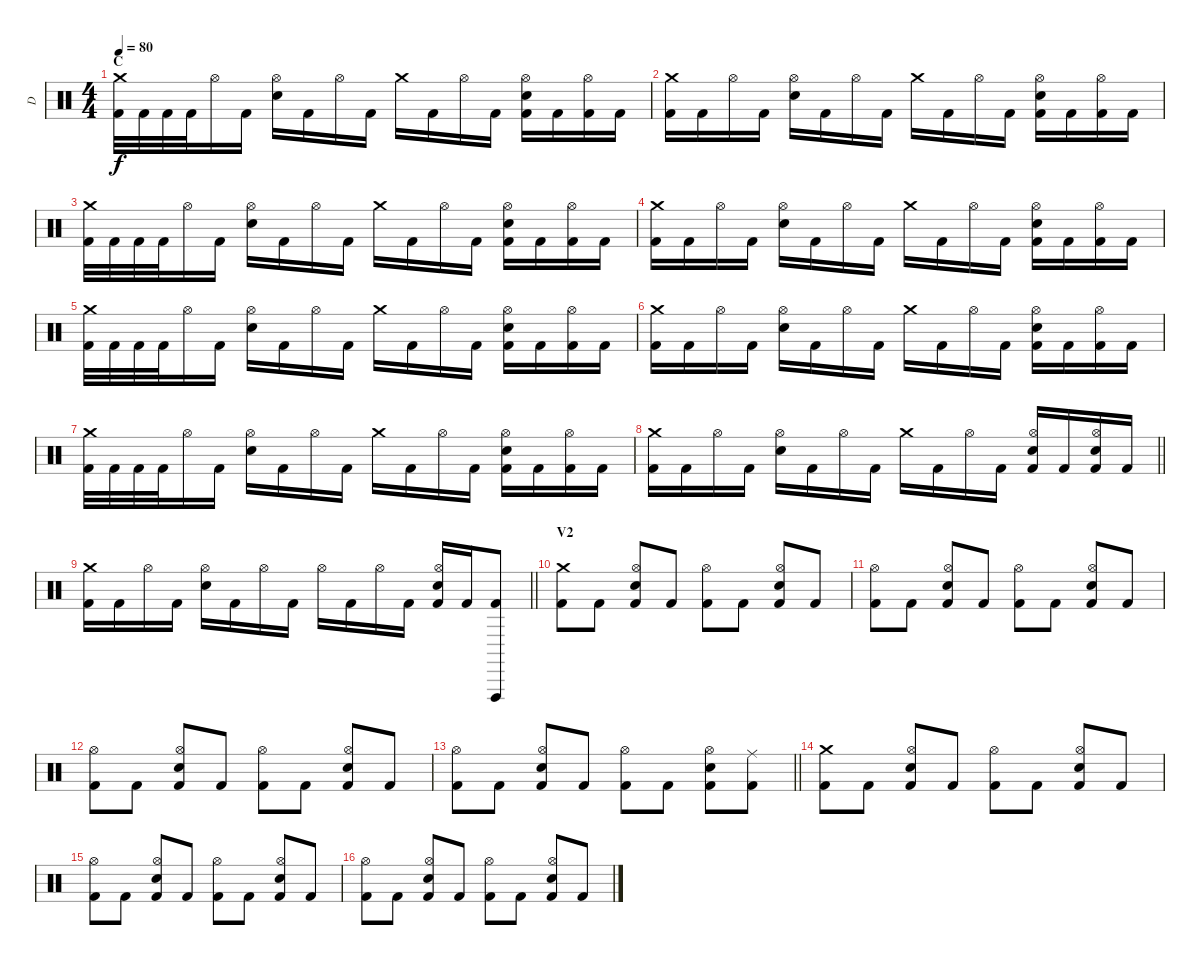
\track ("D" "D") {instrument percussion}
\staff {score}
\articulation defaults
\ts (4 4)
\section ("" "C")
\tempo 80
\clef neutral
\ks c
("Crash medium (hit)" "Kick (hit) 2").32{dy f} "Kick (hit) 2".32 "Kick (hit) 2".32 "Kick (hit) 2".32 "Hi-Hat (open)".16 "Kick (hit) 2".16 ("Hi-Hat (open)" "Electric Snare (hit)").16 "Kick (hit) 2".16 "Hi-Hat (open)".16 "Kick (hit) 2".16 "Crash medium (hit)".16 "Kick (hit) 2".16 "Hi-Hat (open)".16 "Kick (hit) 2".16 ("Hi-Hat (open)" "Electric Snare (hit)" "Kick (hit) 2").16 "Kick (hit) 2".16 ("Hi-Hat (open)" "Kick (hit) 2").16 "Kick (hit) 2".16 |
("Crash medium (hit)" "Kick (hit) 2").16 "Kick (hit) 2".16 "Hi-Hat (open)".16 "Kick (hit) 2".16 ("Hi-Hat (open)" "Electric Snare (hit)").16 "Kick (hit) 2".16 "Hi-Hat (open)".16 "Kick (hit) 2".16 "Crash medium (hit)".16 "Kick (hit) 2".16 "Hi-Hat (open)".16 "Kick (hit) 2".16 ("Hi-Hat (open)" "Electric Snare (hit)" "Kick (hit) 2").16 "Kick (hit) 2".16 ("Hi-Hat (open)" "Kick (hit) 2").16 "Kick (hit) 2".16 |
("Crash medium (hit)" "Kick (hit) 2").32 "Kick (hit) 2".32 "Kick (hit) 2".32 "Kick (hit) 2".32 "Hi-Hat (open)".16 "Kick (hit) 2".16 ("Hi-Hat (open)" "Electric Snare (hit)").16 "Kick (hit) 2".16 "Hi-Hat (open)".16 "Kick (hit) 2".16 "Crash medium (hit)".16 "Kick (hit) 2".16 "Hi-Hat (open)".16 "Kick (hit) 2".16 ("Hi-Hat (open)" "Electric Snare (hit)" "Kick (hit) 2").16 "Kick (hit) 2".16 ("Hi-Hat (open)" "Kick (hit) 2").16 "Kick (hit) 2".16 |
("Crash medium (hit)" "Kick (hit) 2").16 "Kick (hit) 2".16 "Hi-Hat (open)".16 "Kick (hit) 2".16 ("Hi-Hat (open)" "Electric Snare (hit)").16 "Kick (hit) 2".16 "Hi-Hat (open)".16 "Kick (hit) 2".16 "Crash medium (hit)".16 "Kick (hit) 2".16 "Hi-Hat (open)".16 "Kick (hit) 2".16 ("Hi-Hat (open)" "Electric Snare (hit)" "Kick (hit) 2").16 "Kick (hit) 2".16 ("Hi-Hat (open)" "Kick (hit) 2").16 "Kick (hit) 2".16 |
("Crash medium (hit)" "Kick (hit) 2").32 "Kick (hit) 2".32 "Kick (hit) 2".32 "Kick (hit) 2".32 "Hi-Hat (open)".16 "Kick (hit) 2".16 ("Hi-Hat (open)" "Electric Snare (hit)").16 "Kick (hit) 2".16 "Hi-Hat (open)".16 "Kick (hit) 2".16 "Crash medium (hit)".16 "Kick (hit) 2".16 "Hi-Hat (open)".16 "Kick (hit) 2".16 ("Hi-Hat (open)" "Electric Snare (hit)" "Kick (hit) 2").16 "Kick (hit) 2".16 ("Hi-Hat (open)" "Kick (hit) 2").16 "Kick (hit) 2".16 |
("Crash medium (hit)" "Kick (hit) 2").16 "Kick (hit) 2".16 "Hi-Hat (open)".16 "Kick (hit) 2".16 ("Hi-Hat (open)" "Electric Snare (hit)").16 "Kick (hit) 2".16 "Hi-Hat (open)".16 "Kick (hit) 2".16 "Crash medium (hit)".16 "Kick (hit) 2".16 "Hi-Hat (open)".16 "Kick (hit) 2".16 ("Hi-Hat (open)" "Electric Snare (hit)" "Kick (hit) 2").16 "Kick (hit) 2".16 ("Hi-Hat (open)" "Kick (hit) 2").16 "Kick (hit) 2".16 |
("Crash medium (hit)" "Kick (hit) 2").32 "Kick (hit) 2".32 "Kick (hit) 2".32 "Kick (hit) 2".32 "Hi-Hat (open)".16 "Kick (hit) 2".16 ("Hi-Hat (open)" "Electric Snare (hit)").16 "Kick (hit) 2".16 "Hi-Hat (open)".16 "Kick (hit) 2".16 "Crash medium (hit)".16 "Kick (hit) 2".16 "Hi-Hat (open)".16 "Kick (hit) 2".16 ("Hi-Hat (open)" "Electric Snare (hit)" "Kick (hit) 2").16 "Kick (hit) 2".16 ("Hi-Hat (open)" "Kick (hit) 2").16 "Kick (hit) 2".16 |
\barLineRight lightlight
("Crash medium (hit)" "Kick (hit) 2").16 "Kick (hit) 2".16 "Hi-Hat (open)".16 "Kick (hit) 2".16 ("Hi-Hat (open)" "Electric Snare (hit)").16 "Kick (hit) 2".16 "Hi-Hat (open)".16 "Kick (hit) 2".16 "Crash medium (hit)".16 "Kick (hit) 2".16 "Hi-Hat (open)".16 "Kick (hit) 2".16 ("Hi-Hat (open)" "Electric Snare (hit)" "Kick (hit) 2").16 "Kick (hit) 2".16 ("Hi-Hat (open)" "Electric Snare (hit)" "Kick (hit) 2").16 "Kick (hit) 2".16 |
\section ("" "")
\barLineRight lightlight
("Crash medium (hit)" "Kick (hit) 2").16 "Kick (hit) 2".16 "Hi-Hat (open)".16 "Kick (hit) 2".16 ("Hi-Hat (open)" "Electric Snare (hit)").16 "Kick (hit) 2".16 "Hi-Hat (open)".16 "Kick (hit) 2".16 "Hi-Hat (open)".16 "Kick (hit) 2".16 "Hi-Hat (open)".16 "Kick (hit) 2".16 ("Hi-Hat (open)" "Electric Snare (hit)" "Kick (hit) 2").16 "Kick (hit) 2".16 ("Vibraslap (hit)" "Kick (hit) 2").8 |
\section ("" "V2")
("Crash medium (hit)" "Kick (hit) 2").8 "Kick (hit) 2".8 ("Hi-Hat (open)" "Electric Snare (hit)" "Kick (hit) 2").8 "Kick (hit) 2".8 ("Hi-Hat (open)" "Kick (hit) 2").8 "Kick (hit) 2".8 ("Hi-Hat (open)" "Electric Snare (hit)" "Kick (hit) 2").8 "Kick (hit) 2".8 |
("Hi-Hat (open)" "Kick (hit) 2").8 "Kick (hit) 2".8 ("Hi-Hat (open)" "Electric Snare (hit)" "Kick (hit) 2").8 "Kick (hit) 2".8 ("Hi-Hat (open)" "Kick (hit) 2").8 "Kick (hit) 2".8 ("Hi-Hat (open)" "Electric Snare (hit)" "Kick (hit) 2").8 "Kick (hit) 2".8 |
("Hi-Hat (open)" "Kick (hit) 2").8 "Kick (hit) 2".8 ("Hi-Hat (open)" "Electric Snare (hit)" "Kick (hit) 2").8 "Kick (hit) 2".8 ("Hi-Hat (open)" "Kick (hit) 2").8 "Kick (hit) 2".8 ("Hi-Hat (open)" "Electric Snare (hit)" "Kick (hit) 2").8 "Kick (hit) 2".8 |
\barLineRight lightlight
("Hi-Hat (open)" "Kick (hit) 2").8 "Kick (hit) 2".8 ("Hi-Hat (open)" "Electric Snare (hit)" "Kick (hit) 2").8 "Kick (hit) 2".8 ("Hi-Hat (open)" "Kick (hit) 2").8 "Kick (hit) 2".8 ("Hi-Hat (open)" "Electric Snare (hit)" "Kick (hit) 2").8 ("Ride (middle)" "Kick (hit) 2").8 |
("Crash medium (hit)" "Kick (hit) 2").8 "Kick (hit) 2".8 ("Hi-Hat (open)" "Electric Snare (hit)" "Kick (hit) 2").8 "Kick (hit) 2".8 ("Hi-Hat (open)" "Kick (hit) 2").8 "Kick (hit) 2".8 ("Hi-Hat (open)" "Electric Snare (hit)" "Kick (hit) 2").8 "Kick (hit) 2".8 |
("Hi-Hat (open)" "Kick (hit) 2").8 "Kick (hit) 2".8 ("Hi-Hat (open)" "Electric Snare (hit)" "Kick (hit) 2").8 "Kick (hit) 2".8 ("Hi-Hat (open)" "Kick (hit) 2").8 "Kick (hit) 2".8 ("Hi-Hat (open)" "Electric Snare (hit)" "Kick (hit) 2").8 "Kick (hit) 2".8 |
("Hi-Hat (open)" "Kick (hit) 2").8 "Kick (hit) 2".8 ("Hi-Hat (open)" "Electric Snare (hit)" "Kick (hit) 2").8 "Kick (hit) 2".8 ("Hi-Hat (open)" "Kick (hit) 2").8 "Kick (hit) 2".8 ("Hi-Hat (open)" "Electric Snare (hit)" "Kick (hit) 2").8 "Kick (hit) 2".8
